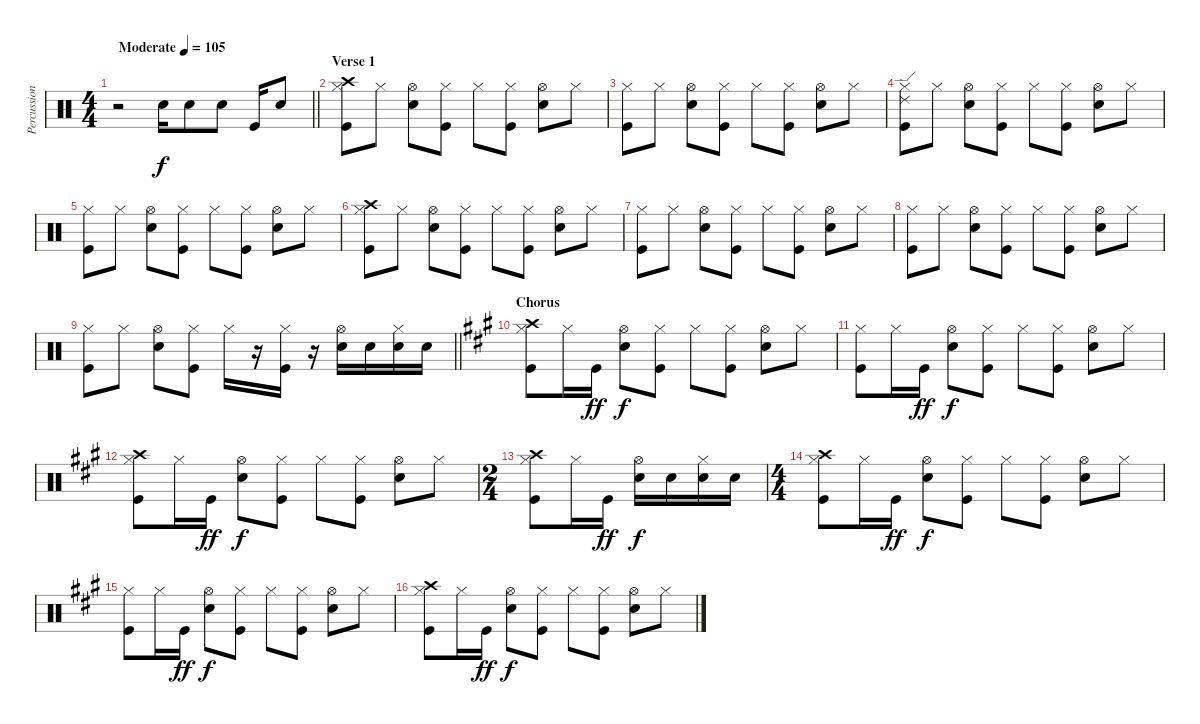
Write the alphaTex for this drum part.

\track ("Percussion" "Percussion") {instrument percussion}
\staff {score}
\articulation defaults
\ts (4 4)
\tempo (105 "Moderate")
\clef neutral
\barLineRight lightlight
\ks c
r.2{dy f} "Snare (hit) 2".16 "Snare (hit) 2".8 "Snare (hit) 2".8 "Kick (hit)".16 "Snare (hit) 2".8 |
\section ("" "Verse 1")
("Hi-Hat (closed)" "Crash high (hit)" "Kick (hit)").8 "Hi-Hat (closed)".8 ("Hi-Hat (open)" "Snare (hit) 2").8 ("Hi-Hat (closed)" "Kick (hit)").8 "Hi-Hat (closed)".8 ("Hi-Hat (closed)" "Kick (hit)").8 ("Hi-Hat (open)" "Snare (hit) 2").8 "Hi-Hat (closed)".8 |
("Hi-Hat (closed)" "Kick (hit)").8 "Hi-Hat (closed)".8 ("Hi-Hat (open)" "Snare (hit) 2").8 ("Hi-Hat (closed)" "Kick (hit)").8 "Hi-Hat (closed)".8 ("Hi-Hat (closed)" "Kick (hit)").8 ("Hi-Hat (open)" "Snare (hit) 2").8 "Hi-Hat (closed)".8 |
("Hi-Hat (closed)" "Kick (hit)" "Ride (edge) 2").8 "Hi-Hat (closed)".8 ("Hi-Hat (open)" "Snare (hit) 2").8 ("Hi-Hat (closed)" "Kick (hit)").8 "Hi-Hat (closed)".8 ("Hi-Hat (closed)" "Kick (hit)").8 ("Hi-Hat (open)" "Snare (hit) 2").8 "Hi-Hat (closed)".8 |
("Hi-Hat (closed)" "Kick (hit)").8 "Hi-Hat (closed)".8 ("Hi-Hat (open)" "Snare (hit) 2").8 ("Hi-Hat (closed)" "Kick (hit)").8 "Hi-Hat (closed)".8 ("Hi-Hat (closed)" "Kick (hit)").8 ("Hi-Hat (open)" "Snare (hit) 2").8 "Hi-Hat (closed)".8 |
("Hi-Hat (closed)" "Crash high (hit)" "Kick (hit)").8 "Hi-Hat (closed)".8 ("Hi-Hat (open)" "Snare (hit) 2").8 ("Hi-Hat (closed)" "Kick (hit)").8 "Hi-Hat (closed)".8 ("Hi-Hat (closed)" "Kick (hit)").8 ("Hi-Hat (open)" "Snare (hit) 2").8 "Hi-Hat (closed)".8 |
("Hi-Hat (closed)" "Kick (hit)").8 "Hi-Hat (closed)".8 ("Hi-Hat (open)" "Snare (hit) 2").8 ("Hi-Hat (closed)" "Kick (hit)").8 "Hi-Hat (closed)".8 ("Hi-Hat (closed)" "Kick (hit)").8 ("Hi-Hat (open)" "Snare (hit) 2").8 "Hi-Hat (closed)".8 |
("Hi-Hat (closed)" "Kick (hit)").8 "Hi-Hat (closed)".8 ("Hi-Hat (open)" "Snare (hit) 2").8 ("Hi-Hat (closed)" "Kick (hit)").8 "Hi-Hat (closed)".8 ("Hi-Hat (closed)" "Kick (hit)").8 ("Hi-Hat (open)" "Snare (hit) 2").8 "Hi-Hat (closed)".8 |
\barLineRight lightlight
("Hi-Hat (closed)" "Kick (hit)").8 "Hi-Hat (closed)".8 ("Hi-Hat (open)" "Snare (hit) 2").8 ("Hi-Hat (closed)" "Kick (hit)").8 "Hi-Hat (closed)".16 r.16 ("Hi-Hat (closed)" "Kick (hit)").16 r.16 ("Hi-Hat (open)" "Snare (hit) 2").16 "Snare (hit) 2".16 ("Hi-Hat (closed)" "Snare (hit) 2").16 "Snare (hit) 2".16 |
\section ("" "Chorus")
\ks a
("Hi-Hat (closed)" "Crash high (hit)" "Kick (hit)").8 "Hi-Hat (closed)".16 "Kick (hit)".16{dy ff} ("Hi-Hat (open)" "Snare (hit) 2").8{dy f} ("Hi-Hat (closed)" "Kick (hit)").8 "Hi-Hat (closed)".8 ("Hi-Hat (closed)" "Kick (hit)").8 ("Hi-Hat (open)" "Snare (hit) 2").8 "Hi-Hat (closed)".8 |
("Hi-Hat (closed)" "Kick (hit)").8 "Hi-Hat (closed)".16 "Kick (hit)".16{dy ff} ("Hi-Hat (open)" "Snare (hit) 2").8{dy f} ("Hi-Hat (closed)" "Kick (hit)").8 "Hi-Hat (closed)".8 ("Hi-Hat (closed)" "Kick (hit)").8 ("Hi-Hat (open)" "Snare (hit) 2").8 "Hi-Hat (closed)".8 |
("Hi-Hat (closed)" "Crash high (hit)" "Kick (hit)").8 "Hi-Hat (closed)".16 "Kick (hit)".16{dy ff} ("Hi-Hat (open)" "Snare (hit) 2").8{dy f} ("Hi-Hat (closed)" "Kick (hit)").8 "Hi-Hat (closed)".8 ("Hi-Hat (closed)" "Kick (hit)").8 ("Hi-Hat (open)" "Snare (hit) 2").8 "Hi-Hat (closed)".8 |
\ts (2 4)
("Hi-Hat (closed)" "Crash high (hit)" "Kick (hit)").8 "Hi-Hat (closed)".16 "Kick (hit)".16{dy ff} ("Hi-Hat (open)" "Snare (hit) 2").16{dy f} "Snare (hit) 2".16 ("Hi-Hat (closed)" "Snare (hit) 2").16 "Snare (hit) 2".16 |
\ts (4 4)
("Hi-Hat (closed)" "Crash high (hit)" "Kick (hit)").8 "Hi-Hat (closed)".16 "Kick (hit)".16{dy ff} ("Hi-Hat (open)" "Snare (hit) 2").8{dy f} ("Hi-Hat (closed)" "Kick (hit)").8 "Hi-Hat (closed)".8 ("Hi-Hat (closed)" "Kick (hit)").8 ("Hi-Hat (open)" "Snare (hit) 2").8 "Hi-Hat (closed)".8 |
("Hi-Hat (closed)" "Kick (hit)").8 "Hi-Hat (closed)".16 "Kick (hit)".16{dy ff} ("Hi-Hat (open)" "Snare (hit) 2").8{dy f} ("Hi-Hat (closed)" "Kick (hit)").8 "Hi-Hat (closed)".8 ("Hi-Hat (closed)" "Kick (hit)").8 ("Hi-Hat (open)" "Snare (hit) 2").8 "Hi-Hat (closed)".8 |
("Hi-Hat (closed)" "Crash high (hit)" "Kick (hit)").8 "Hi-Hat (closed)".16 "Kick (hit)".16{dy ff} ("Hi-Hat (open)" "Snare (hit) 2").8{dy f} ("Hi-Hat (closed)" "Kick (hit)").8 "Hi-Hat (closed)".8 ("Hi-Hat (closed)" "Kick (hit)").8 ("Hi-Hat (open)" "Snare (hit) 2").8 "Hi-Hat (closed)".8
